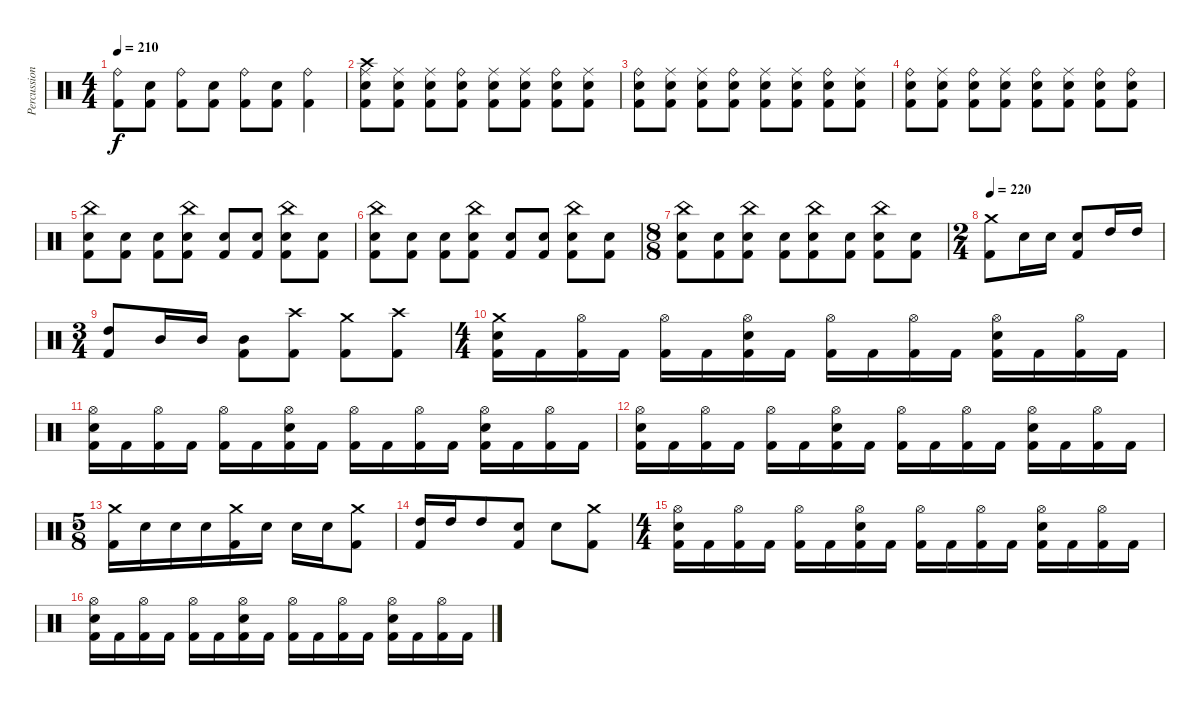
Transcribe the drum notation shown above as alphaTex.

\track ("Percussions" "Percussion") {instrument percussion}
\staff {score}
\articulation defaults
\ts (4 4)
\tempo 210
\clef neutral
\ks c
("Ride (bell)" "Kick (hit) 2").8{dy f} ("Electric Snare (hit)" "Kick (hit) 2").8 ("Ride (bell)" "Kick (hit) 2").8 ("Electric Snare (hit)" "Kick (hit) 2").8 ("Ride (bell)" "Kick (hit) 2").8 ("Electric Snare (hit)" "Kick (hit) 2").8 ("Ride (bell)" "Kick (hit) 2").4 |
("Crash high (hit)" "Ride (middle)" "Electric Snare (hit)" "Kick (hit) 2").8 ("Ride (middle)" "Electric Snare (hit)" "Kick (hit) 2").8 ("Ride (middle)" "Electric Snare (hit)" "Kick (hit) 2").8 ("Ride (bell)" "Electric Snare (hit)" "Kick (hit) 2").8 ("Ride (middle)" "Electric Snare (hit)" "Kick (hit) 2").8 ("Ride (middle)" "Electric Snare (hit)" "Kick (hit) 2").8 ("Ride (bell)" "Electric Snare (hit)" "Kick (hit) 2").8 ("Ride (middle)" "Electric Snare (hit)" "Kick (hit) 2").8 |
("Ride (bell)" "Electric Snare (hit)" "Kick (hit) 2").8 ("Ride (middle)" "Electric Snare (hit)" "Kick (hit) 2").8 ("Ride (middle)" "Electric Snare (hit)" "Kick (hit) 2").8 ("Ride (bell)" "Electric Snare (hit)" "Kick (hit) 2").8 ("Ride (middle)" "Electric Snare (hit)" "Kick (hit) 2").8 ("Ride (middle)" "Electric Snare (hit)" "Kick (hit) 2").8 ("Ride (bell)" "Electric Snare (hit)" "Kick (hit) 2").8 ("Ride (middle)" "Electric Snare (hit)" "Kick (hit) 2").8 |
("Ride (bell)" "Electric Snare (hit)" "Kick (hit) 2").8 ("Ride (middle)" "Electric Snare (hit)" "Kick (hit) 2").8 ("Ride (bell)" "Electric Snare (hit)" "Kick (hit) 2").8 ("Ride (middle)" "Electric Snare (hit)" "Kick (hit) 2").8 ("Ride (bell)" "Electric Snare (hit)" "Kick (hit) 2").8 ("Ride (middle)" "Electric Snare (hit)" "Kick (hit) 2").8 ("Ride (bell)" "Electric Snare (hit)" "Kick (hit) 2").8 ("Ride (bell)" "Electric Snare (hit)" "Kick (hit) 2").8 |
("China (hit)" "Electric Snare (hit)" "Kick (hit) 2").8 ("Electric Snare (hit)" "Kick (hit) 2").8 ("Electric Snare (hit)" "Kick (hit) 2").8 ("China (hit)" "Electric Snare (hit)" "Kick (hit) 2").8 ("Electric Snare (hit)" "Kick (hit) 2").8 ("Electric Snare (hit)" "Kick (hit) 2").8 ("China (hit)" "Electric Snare (hit)" "Kick (hit) 2").8 ("Electric Snare (hit)" "Kick (hit) 2").8 |
("China (hit)" "Electric Snare (hit)" "Kick (hit) 2").8 ("Electric Snare (hit)" "Kick (hit) 2").8 ("Electric Snare (hit)" "Kick (hit) 2").8 ("China (hit)" "Electric Snare (hit)" "Kick (hit) 2").8 ("Electric Snare (hit)" "Kick (hit) 2").8 ("Electric Snare (hit)" "Kick (hit) 2").8 ("China (hit)" "Electric Snare (hit)" "Kick (hit) 2").8 ("Electric Snare (hit)" "Kick (hit) 2").8 |
\ts (8 8)
("China (hit)" "Electric Snare (hit)" "Kick (hit) 2").8 ("Electric Snare (hit)" "Kick (hit) 2").8 ("China (hit)" "Electric Snare (hit)" "Kick (hit) 2").8 ("Electric Snare (hit)" "Kick (hit) 2").8 ("China (hit)" "Electric Snare (hit)" "Kick (hit) 2").8 ("Electric Snare (hit)" "Kick (hit) 2").8 ("China (hit)" "Electric Snare (hit)" "Kick (hit) 2").8 ("Electric Snare (hit)" "Kick (hit) 2").8 |
\ts (2 4)
\tempo 220
("Crash medium (hit)" "Kick (hit) 2").8 "Electric Snare (hit)".16 "Electric Snare (hit)".16 ("Electric Snare (hit)" "Kick (hit) 2").8 "High Tom (hit)".16 "High Tom (hit)".16 |
\ts (3 4)
("High Tom (hit)" "Kick (hit) 2").8 "Mid Tom (hit)".16 "Mid Tom (hit)".16 ("Mid Tom (hit)" "Kick (hit) 2").8 ("Crash high (hit)" "Kick (hit) 2").8 ("Crash medium (hit)" "Kick (hit) 2").8 ("Crash high (hit)" "Kick (hit) 2").8 |
\ts (4 4)
("Crash medium (hit)" "Electric Snare (hit)" "Kick (hit) 2").16 "Kick (hit) 2".16 ("Hi-Hat (open)" "Kick (hit) 2").16 "Kick (hit) 2".16 ("Hi-Hat (open)" "Kick (hit) 2").16 "Kick (hit) 2".16 ("Hi-Hat (open)" "Electric Snare (hit)" "Kick (hit) 2").16 "Kick (hit) 2".16 ("Hi-Hat (open)" "Kick (hit) 2").16 "Kick (hit) 2".16 ("Hi-Hat (open)" "Kick (hit) 2").16 "Kick (hit) 2".16 ("Hi-Hat (open)" "Electric Snare (hit)" "Kick (hit) 2").16 "Kick (hit) 2".16 ("Hi-Hat (open)" "Kick (hit) 2").16 "Kick (hit) 2".16 |
("Hi-Hat (open)" "Electric Snare (hit)" "Kick (hit) 2").16 "Kick (hit) 2".16 ("Hi-Hat (open)" "Kick (hit) 2").16 "Kick (hit) 2".16 ("Hi-Hat (open)" "Kick (hit) 2").16 "Kick (hit) 2".16 ("Hi-Hat (open)" "Electric Snare (hit)" "Kick (hit) 2").16 "Kick (hit) 2".16 ("Hi-Hat (open)" "Kick (hit) 2").16 "Kick (hit) 2".16 ("Hi-Hat (open)" "Kick (hit) 2").16 "Kick (hit) 2".16 ("Hi-Hat (open)" "Electric Snare (hit)" "Kick (hit) 2").16 "Kick (hit) 2".16 ("Hi-Hat (open)" "Kick (hit) 2").16 "Kick (hit) 2".16 |
("Hi-Hat (open)" "Electric Snare (hit)" "Kick (hit) 2").16 "Kick (hit) 2".16 ("Hi-Hat (open)" "Kick (hit) 2").16 "Kick (hit) 2".16 ("Hi-Hat (open)" "Kick (hit) 2").16 "Kick (hit) 2".16 ("Hi-Hat (open)" "Electric Snare (hit)" "Kick (hit) 2").16 "Kick (hit) 2".16 ("Hi-Hat (open)" "Kick (hit) 2").16 "Kick (hit) 2".16 ("Hi-Hat (open)" "Kick (hit) 2").16 "Kick (hit) 2".16 ("Hi-Hat (open)" "Electric Snare (hit)" "Kick (hit) 2").16 "Kick (hit) 2".16 ("Hi-Hat (open)" "Kick (hit) 2").16 "Kick (hit) 2".16 |
\ts (5 8)
("Crash medium (hit)" "Kick (hit) 2").16 "Electric Snare (hit)".16 "Electric Snare (hit)".16 "Electric Snare (hit)".16 ("Crash medium (hit)" "Kick (hit) 2").16 "Electric Snare (hit)".16 "Electric Snare (hit)".16 "Electric Snare (hit)".16 ("Crash medium (hit)" "Kick (hit) 2").8 |
("High Tom (hit)" "Kick (hit) 2").16 "High Tom (hit)".16 "High Tom (hit)".8 ("Electric Snare (hit)" "Kick (hit) 2").8 "Electric Snare (hit)".8 ("Crash medium (hit)" "Kick (hit) 2").8 |
\ts (4 4)
("Hi-Hat (open)" "Electric Snare (hit)" "Kick (hit) 2").16 "Kick (hit) 2".16 ("Hi-Hat (open)" "Kick (hit) 2").16 "Kick (hit) 2".16 ("Hi-Hat (open)" "Kick (hit) 2").16 "Kick (hit) 2".16 ("Hi-Hat (open)" "Electric Snare (hit)" "Kick (hit) 2").16 "Kick (hit) 2".16 ("Hi-Hat (open)" "Kick (hit) 2").16 "Kick (hit) 2".16 ("Hi-Hat (open)" "Kick (hit) 2").16 "Kick (hit) 2".16 ("Hi-Hat (open)" "Electric Snare (hit)" "Kick (hit) 2").16 "Kick (hit) 2".16 ("Hi-Hat (open)" "Kick (hit) 2").16 "Kick (hit) 2".16 |
("Hi-Hat (open)" "Electric Snare (hit)" "Kick (hit) 2").16 "Kick (hit) 2".16 ("Hi-Hat (open)" "Kick (hit) 2").16 "Kick (hit) 2".16 ("Hi-Hat (open)" "Kick (hit) 2").16 "Kick (hit) 2".16 ("Hi-Hat (open)" "Electric Snare (hit)" "Kick (hit) 2").16 "Kick (hit) 2".16 ("Hi-Hat (open)" "Kick (hit) 2").16 "Kick (hit) 2".16 ("Hi-Hat (open)" "Kick (hit) 2").16 "Kick (hit) 2".16 ("Hi-Hat (open)" "Electric Snare (hit)" "Kick (hit) 2").16 "Kick (hit) 2".16 ("Hi-Hat (open)" "Kick (hit) 2").16 "Kick (hit) 2".16
